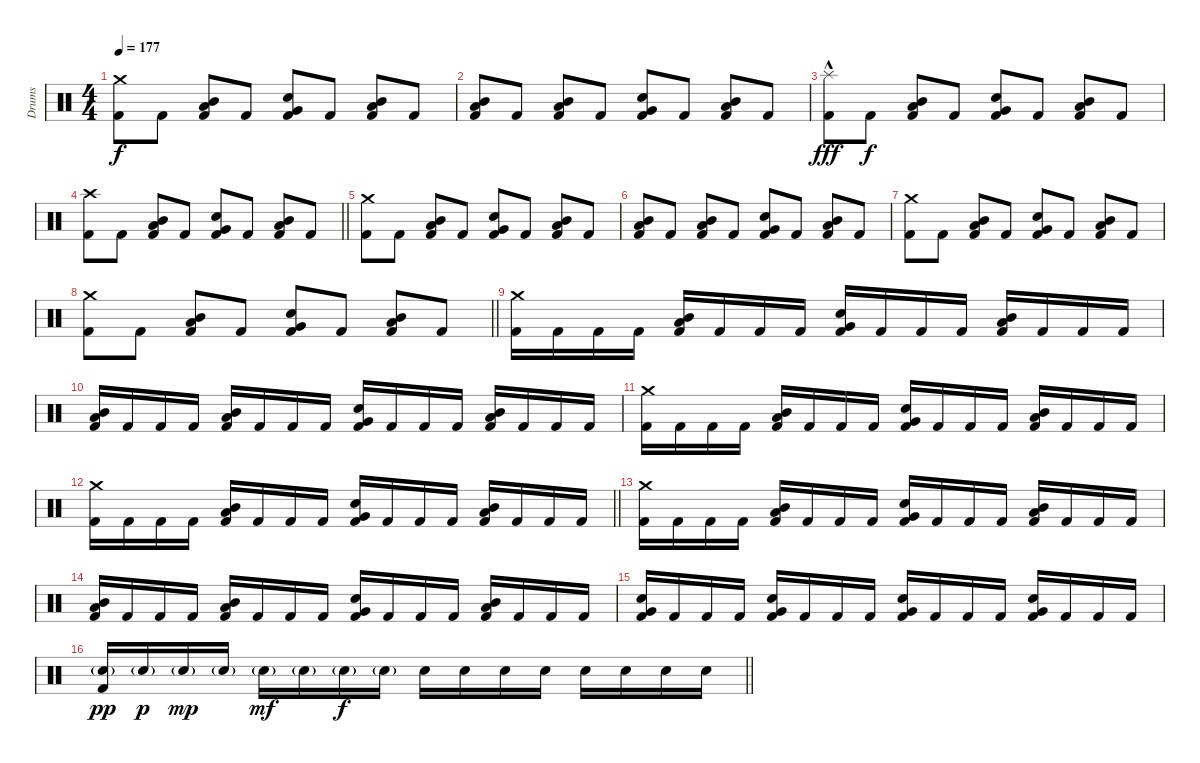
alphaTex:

\track ("Drums" "Drums") {instrument percussion}
\staff {score}
\articulation defaults
\ts (4 4)
\section ("" "")
\tempo 177
\clef neutral
\ks c
("Crash medium (hit)" "Kick (hit) 2").8{dy f} "Kick (hit) 2".8 ("Mid Tom (hit)" "Low Tom (hit)" "Kick (hit) 2").8 "Kick (hit) 2".8 ("Electric Snare (hit)" "Very Low Tom (hit)" "Kick (hit) 2").8 "Kick (hit) 2".8 ("Mid Tom (hit)" "Low Tom (hit)" "Kick (hit) 2").8 "Kick (hit) 2".8 |
("Mid Tom (hit)" "Low Tom (hit)" "Kick (hit) 2").8 "Kick (hit) 2".8 ("Mid Tom (hit)" "Low Tom (hit)" "Kick (hit) 2").8 "Kick (hit) 2".8 ("Electric Snare (hit)" "Very Low Tom (hit)" "Kick (hit) 2").8 "Kick (hit) 2".8 ("Mid Tom (hit)" "Low Tom (hit)" "Kick (hit) 2").8 "Kick (hit) 2".8 |
("Splash (hit)"{hac} "Kick (hit) 2").8{dy fff} "Kick (hit) 2".8{dy f} ("Mid Tom (hit)" "Low Tom (hit)" "Kick (hit) 2").8 "Kick (hit) 2".8 ("Electric Snare (hit)" "Very Low Tom (hit)" "Kick (hit) 2").8 "Kick (hit) 2".8 ("Mid Tom (hit)" "Low Tom (hit)" "Kick (hit) 2").8 "Kick (hit) 2".8 |
\barLineRight lightlight
("Crash high (hit)" "Kick (hit) 2").8 "Kick (hit) 2".8 ("Mid Tom (hit)" "Low Tom (hit)" "Kick (hit) 2").8 "Kick (hit) 2".8 ("Electric Snare (hit)" "Very Low Tom (hit)" "Kick (hit) 2").8 "Kick (hit) 2".8 ("Mid Tom (hit)" "Low Tom (hit)" "Kick (hit) 2").8 "Kick (hit) 2".8 |
("Crash medium (hit)" "Kick (hit) 2").8 "Kick (hit) 2".8 ("Mid Tom (hit)" "Low Tom (hit)" "Kick (hit) 2").8 "Kick (hit) 2".8 ("Electric Snare (hit)" "Very Low Tom (hit)" "Kick (hit) 2").8 "Kick (hit) 2".8 ("Mid Tom (hit)" "Low Tom (hit)" "Kick (hit) 2").8 "Kick (hit) 2".8 |
("Mid Tom (hit)" "Low Tom (hit)" "Kick (hit) 2").8 "Kick (hit) 2".8 ("Mid Tom (hit)" "Low Tom (hit)" "Kick (hit) 2").8 "Kick (hit) 2".8 ("Electric Snare (hit)" "Very Low Tom (hit)" "Kick (hit) 2").8 "Kick (hit) 2".8 ("Mid Tom (hit)" "Low Tom (hit)" "Kick (hit) 2").8 "Kick (hit) 2".8 |
("Crash medium (hit)" "Kick (hit) 2").8 "Kick (hit) 2".8 ("Mid Tom (hit)" "Low Tom (hit)" "Kick (hit) 2").8 "Kick (hit) 2".8 ("Electric Snare (hit)" "Very Low Tom (hit)" "Kick (hit) 2").8 "Kick (hit) 2".8 ("Mid Tom (hit)" "Low Tom (hit)" "Kick (hit) 2").8 "Kick (hit) 2".8 |
\barLineRight lightlight
("Crash medium (hit)" "Kick (hit) 2").8 "Kick (hit) 2".8 ("Mid Tom (hit)" "Low Tom (hit)" "Kick (hit) 2").8 "Kick (hit) 2".8 ("Electric Snare (hit)" "Very Low Tom (hit)" "Kick (hit) 2").8 "Kick (hit) 2".8 ("Mid Tom (hit)" "Low Tom (hit)" "Kick (hit) 2").8 "Kick (hit) 2".8 |
\section ("" "")
("Crash medium (hit)" "Kick (hit) 2").16 "Kick (hit) 2".16 "Kick (hit) 2".16 "Kick (hit) 2".16 ("Mid Tom (hit)" "Low Tom (hit)" "Kick (hit) 2").16 "Kick (hit) 2".16 "Kick (hit) 2".16 "Kick (hit) 2".16 ("Electric Snare (hit)" "Very Low Tom (hit)" "Kick (hit) 2").16 "Kick (hit) 2".16 "Kick (hit) 2".16 "Kick (hit) 2".16 ("Mid Tom (hit)" "Low Tom (hit)" "Kick (hit) 2").16 "Kick (hit) 2".16 "Kick (hit) 2".16 "Kick (hit) 2".16 |
("Mid Tom (hit)" "Low Tom (hit)" "Kick (hit) 2").16 "Kick (hit) 2".16 "Kick (hit) 2".16 "Kick (hit) 2".16 ("Mid Tom (hit)" "Low Tom (hit)" "Kick (hit) 2").16 "Kick (hit) 2".16 "Kick (hit) 2".16 "Kick (hit) 2".16 ("Electric Snare (hit)" "Very Low Tom (hit)" "Kick (hit) 2").16 "Kick (hit) 2".16 "Kick (hit) 2".16 "Kick (hit) 2".16 ("Mid Tom (hit)" "Low Tom (hit)" "Kick (hit) 2").16 "Kick (hit) 2".16 "Kick (hit) 2".16 "Kick (hit) 2".16 |
("Crash medium (hit)" "Kick (hit) 2").16 "Kick (hit) 2".16 "Kick (hit) 2".16 "Kick (hit) 2".16 ("Mid Tom (hit)" "Low Tom (hit)" "Kick (hit) 2").16 "Kick (hit) 2".16 "Kick (hit) 2".16 "Kick (hit) 2".16 ("Electric Snare (hit)" "Very Low Tom (hit)" "Kick (hit) 2").16 "Kick (hit) 2".16 "Kick (hit) 2".16 "Kick (hit) 2".16 ("Mid Tom (hit)" "Low Tom (hit)" "Kick (hit) 2").16 "Kick (hit) 2".16 "Kick (hit) 2".16 "Kick (hit) 2".16 |
\barLineRight lightlight
("Crash medium (hit)" "Kick (hit) 2").16 "Kick (hit) 2".16 "Kick (hit) 2".16 "Kick (hit) 2".16 ("Mid Tom (hit)" "Low Tom (hit)" "Kick (hit) 2").16 "Kick (hit) 2".16 "Kick (hit) 2".16 "Kick (hit) 2".16 ("Electric Snare (hit)" "Very Low Tom (hit)" "Kick (hit) 2").16 "Kick (hit) 2".16 "Kick (hit) 2".16 "Kick (hit) 2".16 ("Mid Tom (hit)" "Low Tom (hit)" "Kick (hit) 2").16 "Kick (hit) 2".16 "Kick (hit) 2".16 "Kick (hit) 2".16 |
("Crash medium (hit)" "Kick (hit) 2").16 "Kick (hit) 2".16 "Kick (hit) 2".16 "Kick (hit) 2".16 ("Mid Tom (hit)" "Low Tom (hit)" "Kick (hit) 2").16 "Kick (hit) 2".16 "Kick (hit) 2".16 "Kick (hit) 2".16 ("Electric Snare (hit)" "Very Low Tom (hit)" "Kick (hit) 2").16 "Kick (hit) 2".16 "Kick (hit) 2".16 "Kick (hit) 2".16 ("Mid Tom (hit)" "Low Tom (hit)" "Kick (hit) 2").16 "Kick (hit) 2".16 "Kick (hit) 2".16 "Kick (hit) 2".16 |
("Mid Tom (hit)" "Low Tom (hit)" "Kick (hit) 2").16 "Kick (hit) 2".16 "Kick (hit) 2".16 "Kick (hit) 2".16 ("Mid Tom (hit)" "Low Tom (hit)" "Kick (hit) 2").16 "Kick (hit) 2".16 "Kick (hit) 2".16 "Kick (hit) 2".16 ("Electric Snare (hit)" "Very Low Tom (hit)" "Kick (hit) 2").16 "Kick (hit) 2".16 "Kick (hit) 2".16 "Kick (hit) 2".16 ("Mid Tom (hit)" "Low Tom (hit)" "Kick (hit) 2").16 "Kick (hit) 2".16 "Kick (hit) 2".16 "Kick (hit) 2".16 |
("Electric Snare (hit)" "Very Low Tom (hit)" "Kick (hit) 2").16 "Kick (hit) 2".16 "Kick (hit) 2".16 "Kick (hit) 2".16 ("Electric Snare (hit)" "Very Low Tom (hit)" "Kick (hit) 2").16 "Kick (hit) 2".16 "Kick (hit) 2".16 "Kick (hit) 2".16 ("Electric Snare (hit)" "Very Low Tom (hit)" "Kick (hit) 2").16 "Kick (hit) 2".16 "Kick (hit) 2".16 "Kick (hit) 2".16 ("Electric Snare (hit)" "Very Low Tom (hit)" "Kick (hit) 2").16 "Kick (hit) 2".16 "Kick (hit) 2".16 "Kick (hit) 2".16 |
\barLineRight lightlight
("Electric Snare (hit)"{g} "Kick (hit) 2").16{dy pp} "Electric Snare (hit)"{g}.16{dy p} "Electric Snare (hit)"{g}.16{dy mp} "Electric Snare (hit)"{g}.16 "Electric Snare (hit)"{g}.16{dy mf} "Electric Snare (hit)"{g}.16 "Electric Snare (hit)"{g}.16{dy f} "Electric Snare (hit)"{g}.16 "Electric Snare (hit)".16 "Electric Snare (hit)".16 "Electric Snare (hit)".16 "Electric Snare (hit)".16 "Electric Snare (hit)".16 "Electric Snare (hit)".16 "Electric Snare (hit)".16 "Electric Snare (hit)".16
